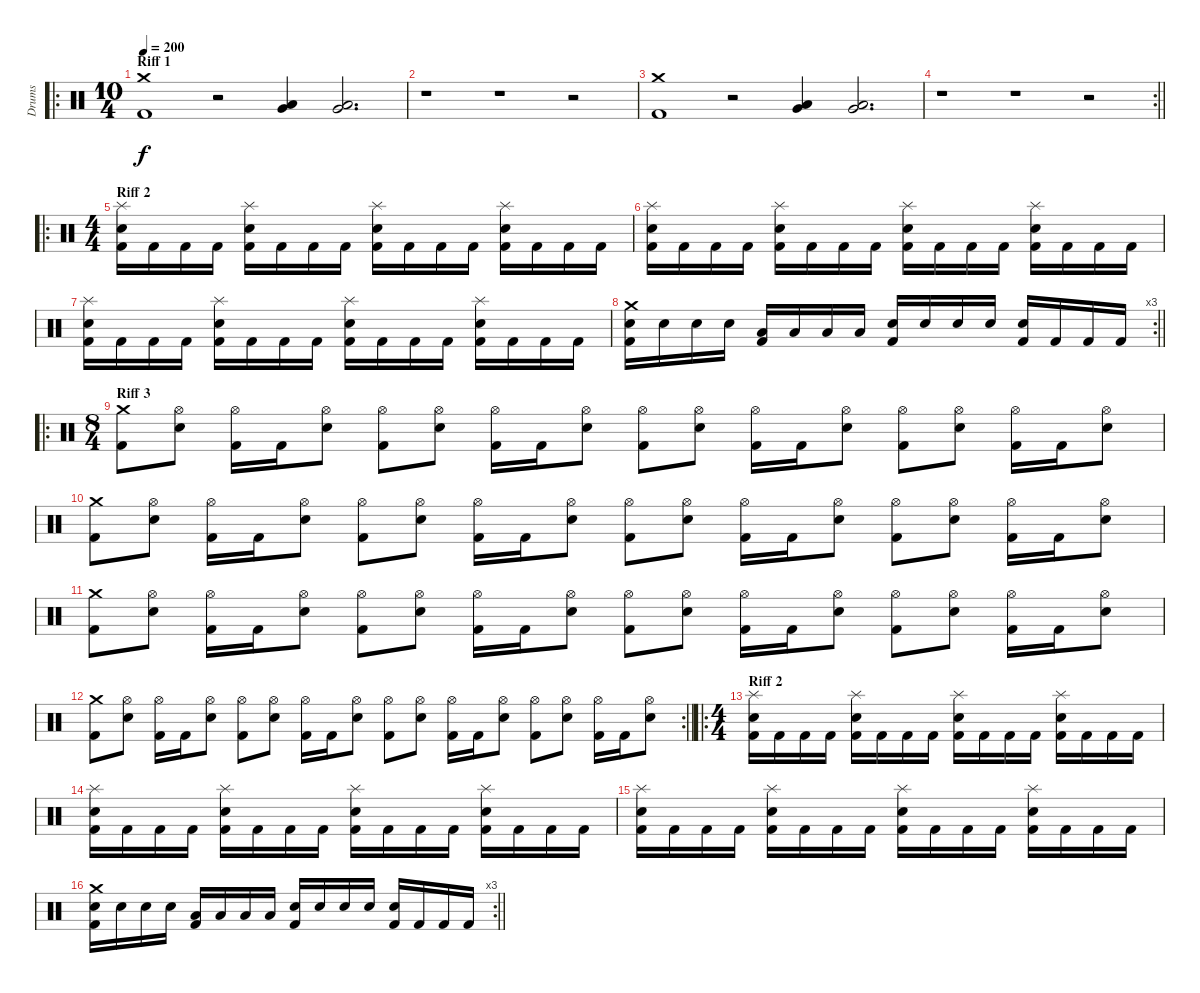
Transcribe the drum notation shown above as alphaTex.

\track ("Drums" "Drums") {instrument percussion}
\staff {score}
\articulation defaults
\ro
\ts (10 4)
\section ("" "Riff 1")
\tempo 200
\clef neutral
\ks c
("Crash medium (hit)" "Kick (hit) 2").1{dy f} r.2 ("Very Low Tom (hit)" "Low Tom (hit)").4 ("Very Low Tom (hit)" "Low Tom (hit)").2{d} |
r.1 r.1 r.2 |
("Crash medium (hit)" "Kick (hit) 2").1 r.2 ("Very Low Tom (hit)" "Low Tom (hit)").4 ("Very Low Tom (hit)" "Low Tom (hit)").2{d} |
\rc 2
\barLineRight lightlight
r.1 r.1 r.2 |
\ro
\ts (4 4)
\section ("" "Riff 2")
("Kick (hit) 2" "Snare (hit) 2" "Splash (hit)").16 "Kick (hit) 2".16 "Kick (hit) 2".16 "Kick (hit) 2".16 ("Kick (hit) 2" "Snare (hit) 2" "Splash (hit)").16 "Kick (hit) 2".16 "Kick (hit) 2".16 "Kick (hit) 2".16 ("Kick (hit) 2" "Snare (hit) 2" "Splash (hit)").16 "Kick (hit) 2".16 "Kick (hit) 2".16 "Kick (hit) 2".16 ("Kick (hit) 2" "Snare (hit) 2" "Splash (hit)").16 "Kick (hit) 2".16 "Kick (hit) 2".16 "Kick (hit) 2".16 |
("Kick (hit) 2" "Snare (hit) 2" "Splash (hit)").16 "Kick (hit) 2".16 "Kick (hit) 2".16 "Kick (hit) 2".16 ("Kick (hit) 2" "Snare (hit) 2" "Splash (hit)").16 "Kick (hit) 2".16 "Kick (hit) 2".16 "Kick (hit) 2".16 ("Kick (hit) 2" "Snare (hit) 2" "Splash (hit)").16 "Kick (hit) 2".16 "Kick (hit) 2".16 "Kick (hit) 2".16 ("Kick (hit) 2" "Snare (hit) 2" "Splash (hit)").16 "Kick (hit) 2".16 "Kick (hit) 2".16 "Kick (hit) 2".16 |
("Kick (hit) 2" "Snare (hit) 2" "Splash (hit)").16 "Kick (hit) 2".16 "Kick (hit) 2".16 "Kick (hit) 2".16 ("Kick (hit) 2" "Snare (hit) 2" "Splash (hit)").16 "Kick (hit) 2".16 "Kick (hit) 2".16 "Kick (hit) 2".16 ("Kick (hit) 2" "Snare (hit) 2" "Splash (hit)").16 "Kick (hit) 2".16 "Kick (hit) 2".16 "Kick (hit) 2".16 ("Kick (hit) 2" "Snare (hit) 2" "Splash (hit)").16 "Kick (hit) 2".16 "Kick (hit) 2".16 "Kick (hit) 2".16 |
\rc 3
\barLineRight lightlight
("Kick (hit) 2" "Snare (hit) 2" "Crash medium (hit)").16 "Snare (hit) 2".16 "Snare (hit) 2".16 "Snare (hit) 2".16 ("Kick (hit) 2" "Low Tom (hit)").16 "Low Tom (hit)".16 "Low Tom (hit)".16 "Low Tom (hit)".16 ("Kick (hit) 2" "Snare (hit) 2").16 "Snare (hit) 2".16 "Snare (hit) 2".16 "Snare (hit) 2".16 ("Kick (hit) 2" "Snare (hit) 2").16 "Kick (hit) 2".16 "Kick (hit) 2".16 "Kick (hit) 2".16 |
\ro
\ts (8 4)
\section ("" "Riff 3")
("Crash medium (hit)" "Kick (hit) 2").8 ("Hi-Hat (open)" "Snare (hit) 2").8 ("Hi-Hat (open)" "Kick (hit) 2").16 "Kick (hit) 2".16 ("Hi-Hat (open)" "Snare (hit) 2").8 ("Hi-Hat (open)" "Kick (hit) 2").8 ("Hi-Hat (open)" "Snare (hit) 2").8 ("Hi-Hat (open)" "Kick (hit) 2").16 "Kick (hit) 2".16 ("Hi-Hat (open)" "Snare (hit) 2").8 ("Hi-Hat (open)" "Kick (hit) 2").8 ("Hi-Hat (open)" "Snare (hit) 2").8 ("Hi-Hat (open)" "Kick (hit) 2").16 "Kick (hit) 2".16 ("Hi-Hat (open)" "Snare (hit) 2").8 ("Hi-Hat (open)" "Kick (hit) 2").8 ("Hi-Hat (open)" "Snare (hit) 2").8 ("Hi-Hat (open)" "Kick (hit) 2").16 "Kick (hit) 2".16 ("Hi-Hat (open)" "Snare (hit) 2").8 |
("Crash medium (hit)" "Kick (hit) 2").8 ("Hi-Hat (open)" "Snare (hit) 2").8 ("Hi-Hat (open)" "Kick (hit) 2").16 "Kick (hit) 2".16 ("Hi-Hat (open)" "Snare (hit) 2").8 ("Hi-Hat (open)" "Kick (hit) 2").8 ("Hi-Hat (open)" "Snare (hit) 2").8 ("Hi-Hat (open)" "Kick (hit) 2").16 "Kick (hit) 2".16 ("Hi-Hat (open)" "Snare (hit) 2").8 ("Hi-Hat (open)" "Kick (hit) 2").8 ("Hi-Hat (open)" "Snare (hit) 2").8 ("Hi-Hat (open)" "Kick (hit) 2").16 "Kick (hit) 2".16 ("Hi-Hat (open)" "Snare (hit) 2").8 ("Hi-Hat (open)" "Kick (hit) 2").8 ("Hi-Hat (open)" "Snare (hit) 2").8 ("Hi-Hat (open)" "Kick (hit) 2").16 "Kick (hit) 2".16 ("Hi-Hat (open)" "Snare (hit) 2").8 |
("Crash medium (hit)" "Kick (hit) 2").8 ("Hi-Hat (open)" "Snare (hit) 2").8 ("Hi-Hat (open)" "Kick (hit) 2").16 "Kick (hit) 2".16 ("Hi-Hat (open)" "Snare (hit) 2").8 ("Hi-Hat (open)" "Kick (hit) 2").8 ("Hi-Hat (open)" "Snare (hit) 2").8 ("Hi-Hat (open)" "Kick (hit) 2").16 "Kick (hit) 2".16 ("Hi-Hat (open)" "Snare (hit) 2").8 ("Hi-Hat (open)" "Kick (hit) 2").8 ("Hi-Hat (open)" "Snare (hit) 2").8 ("Hi-Hat (open)" "Kick (hit) 2").16 "Kick (hit) 2".16 ("Hi-Hat (open)" "Snare (hit) 2").8 ("Hi-Hat (open)" "Kick (hit) 2").8 ("Hi-Hat (open)" "Snare (hit) 2").8 ("Hi-Hat (open)" "Kick (hit) 2").16 "Kick (hit) 2".16 ("Hi-Hat (open)" "Snare (hit) 2").8 |
\rc 2
\barLineRight lightlight
("Crash medium (hit)" "Kick (hit) 2").8 ("Hi-Hat (open)" "Snare (hit) 2").8 ("Hi-Hat (open)" "Kick (hit) 2").16 "Kick (hit) 2".16 ("Hi-Hat (open)" "Snare (hit) 2").8 ("Hi-Hat (open)" "Kick (hit) 2").8 ("Hi-Hat (open)" "Snare (hit) 2").8 ("Hi-Hat (open)" "Kick (hit) 2").16 "Kick (hit) 2".16 ("Hi-Hat (open)" "Snare (hit) 2").8 ("Hi-Hat (open)" "Kick (hit) 2").8 ("Hi-Hat (open)" "Snare (hit) 2").8 ("Hi-Hat (open)" "Kick (hit) 2").16 "Kick (hit) 2".16 ("Hi-Hat (open)" "Snare (hit) 2").8 ("Hi-Hat (open)" "Kick (hit) 2").8 ("Hi-Hat (open)" "Snare (hit) 2").8 ("Hi-Hat (open)" "Kick (hit) 2").16 "Kick (hit) 2".16 ("Hi-Hat (open)" "Snare (hit) 2").8 |
\ro
\ts (4 4)
\section ("" "Riff 2")
("Kick (hit) 2" "Snare (hit) 2" "Splash (hit)").16 "Kick (hit) 2".16 "Kick (hit) 2".16 "Kick (hit) 2".16 ("Kick (hit) 2" "Snare (hit) 2" "Splash (hit)").16 "Kick (hit) 2".16 "Kick (hit) 2".16 "Kick (hit) 2".16 ("Kick (hit) 2" "Snare (hit) 2" "Splash (hit)").16 "Kick (hit) 2".16 "Kick (hit) 2".16 "Kick (hit) 2".16 ("Kick (hit) 2" "Snare (hit) 2" "Splash (hit)").16 "Kick (hit) 2".16 "Kick (hit) 2".16 "Kick (hit) 2".16 |
("Kick (hit) 2" "Snare (hit) 2" "Splash (hit)").16 "Kick (hit) 2".16 "Kick (hit) 2".16 "Kick (hit) 2".16 ("Kick (hit) 2" "Snare (hit) 2" "Splash (hit)").16 "Kick (hit) 2".16 "Kick (hit) 2".16 "Kick (hit) 2".16 ("Kick (hit) 2" "Snare (hit) 2" "Splash (hit)").16 "Kick (hit) 2".16 "Kick (hit) 2".16 "Kick (hit) 2".16 ("Kick (hit) 2" "Snare (hit) 2" "Splash (hit)").16 "Kick (hit) 2".16 "Kick (hit) 2".16 "Kick (hit) 2".16 |
("Kick (hit) 2" "Snare (hit) 2" "Splash (hit)").16 "Kick (hit) 2".16 "Kick (hit) 2".16 "Kick (hit) 2".16 ("Kick (hit) 2" "Snare (hit) 2" "Splash (hit)").16 "Kick (hit) 2".16 "Kick (hit) 2".16 "Kick (hit) 2".16 ("Kick (hit) 2" "Snare (hit) 2" "Splash (hit)").16 "Kick (hit) 2".16 "Kick (hit) 2".16 "Kick (hit) 2".16 ("Kick (hit) 2" "Snare (hit) 2" "Splash (hit)").16 "Kick (hit) 2".16 "Kick (hit) 2".16 "Kick (hit) 2".16 |
\rc 3
\barLineRight lightlight
("Kick (hit) 2" "Snare (hit) 2" "Crash medium (hit)").16 "Snare (hit) 2".16 "Snare (hit) 2".16 "Snare (hit) 2".16 ("Kick (hit) 2" "Low Tom (hit)").16 "Low Tom (hit)".16 "Low Tom (hit)".16 "Low Tom (hit)".16 ("Kick (hit) 2" "Snare (hit) 2").16 "Snare (hit) 2".16 "Snare (hit) 2".16 "Snare (hit) 2".16 ("Kick (hit) 2" "Snare (hit) 2").16 "Kick (hit) 2".16 "Kick (hit) 2".16 "Kick (hit) 2".16
